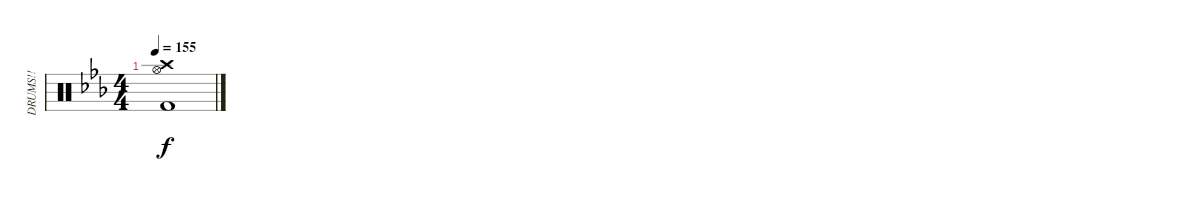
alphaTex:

\track ("DRUMS!!" "DRUMS!!") {instrument percussion}
\staff {score}
\articulation defaults
\ts (4 4)
\tempo 155
\clef neutral
\ks eb
("Crash high (hit)" "Hi-Hat (open)" "Kick (hit) 2").1{dy f}
